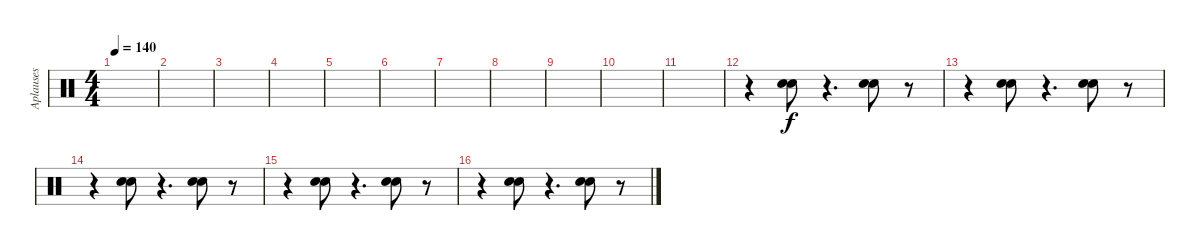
\track ("Aplauses" "Aplauses") {instrument percussion}
\staff {score}
\articulation defaults
\ts (4 4)
\tempo 140
\clef neutral
\ks c
|
|
|
|
|
|
|
|
|
|
|
r.4 ("Hand Clap (hit)" "Hand Clap (hit)").8 r.4{d} ("Hand Clap (hit)" "Hand Clap (hit)").8 r.8 |
r.4 ("Hand Clap (hit)" "Hand Clap (hit)").8 r.4{d} ("Hand Clap (hit)" "Hand Clap (hit)").8 r.8 |
r.4 ("Hand Clap (hit)" "Hand Clap (hit)").8 r.4{d} ("Hand Clap (hit)" "Hand Clap (hit)").8 r.8 |
r.4 ("Hand Clap (hit)" "Hand Clap (hit)").8 r.4{d} ("Hand Clap (hit)" "Hand Clap (hit)").8 r.8 |
r.4 ("Hand Clap (hit)" "Hand Clap (hit)").8 r.4{d} ("Hand Clap (hit)" "Hand Clap (hit)").8 r.8
